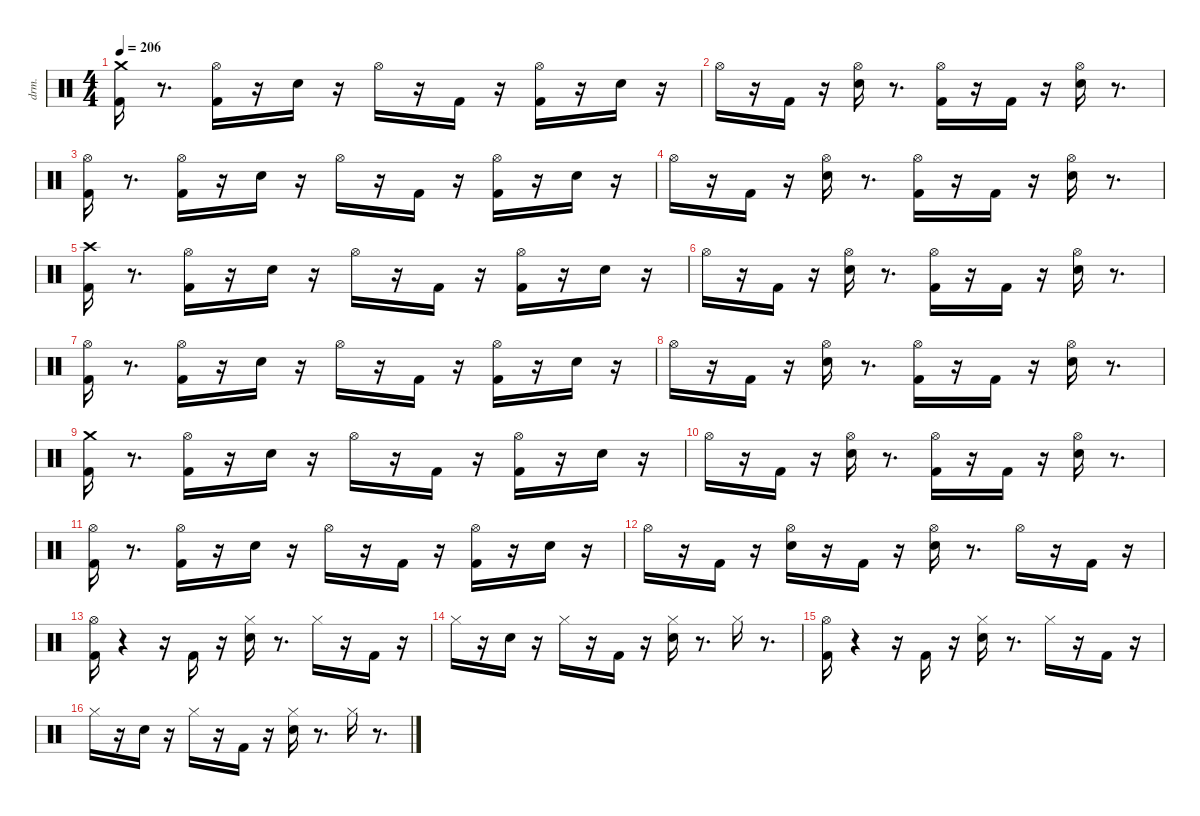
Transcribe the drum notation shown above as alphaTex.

\defaultSystemsLayout 4
\hideDynamics
\bracketExtendMode nobrackets
\otherSystemsTrackNameOrientation horizontal
\track ("EZdrummer 3" "drm.") {instrument percussion}
\staff {score}
\articulation defaults
\ts (4 4)
\tempo 206
\clef neutral
\ks aminor
("Kick (hit) 2" "Crash medium (hit)").16{dy ff beam Down} r.8{d beam Down} ("Kick (hit) 2" "Hi-Hat (open)"{acc #}).16{beam Down} r.16{beam Down} "Snare (hit) 2".16{beam Down} r.16{beam Down} "Hi-Hat (open)"{acc #}.16{dy f beam Down} r.16{beam Down} "Kick (hit) 2".16{dy mf beam Down} r.16{beam Down} ("Kick (hit) 2" "Hi-Hat (open)"{acc #}).16{dy ff beam Down} r.16{beam Down} "Snare (hit) 2".16{beam Down} r.16{beam Down} |
"Hi-Hat (open)"{acc #}.16{dy fff beam Down} r.16{beam Down} "Kick (hit) 2".16{dy ff beam Down} r.16{beam Down} ("Snare (hit) 2" "Hi-Hat (open)"{acc #}).16{beam Down} r.8{d beam Down} ("Kick (hit) 2" "Hi-Hat (open)"{acc #}).16{dy mf beam Down} r.16{beam Down} "Kick (hit) 2".16{dy fff beam Down} r.16{beam Down} ("Snare (hit) 2" "Hi-Hat (open)"{acc #}).16{dy ff beam Down} r.8{d beam Down} |
("Kick (hit) 2" "Hi-Hat (open)"{acc #}).16{beam Down} r.8{d beam Down} ("Kick (hit) 2" "Hi-Hat (open)"{acc #}).16{beam Down} r.16{beam Down} "Snare (hit) 2".16{beam Down} r.16{beam Down} "Hi-Hat (open)"{acc #}.16{dy f beam Down} r.16{beam Down} "Kick (hit) 2".16{dy mf beam Down} r.16{beam Down} ("Kick (hit) 2" "Hi-Hat (open)"{acc #}).16{dy ff beam Down} r.16{beam Down} "Snare (hit) 2".16{beam Down} r.16{beam Down} |
"Hi-Hat (open)"{acc #}.16{dy fff beam Down} r.16{beam Down} "Kick (hit) 2".16{dy ff beam Down} r.16{beam Down} ("Snare (hit) 2" "Hi-Hat (open)"{acc #}).16{beam Down} r.8{d beam Down} ("Kick (hit) 2" "Hi-Hat (open)"{acc #}).16{dy mf beam Down} r.16{beam Down} "Kick (hit) 2".16{dy fff beam Down} r.16{beam Down} ("Snare (hit) 2" "Hi-Hat (open)"{acc #}).16{dy ff beam Down} r.8{d beam Down} |
("Kick (hit) 2" "Crash high (hit)"{acc #}).16{beam Down} r.8{d beam Down} ("Kick (hit) 2" "Hi-Hat (open)"{acc #}).16{beam Down} r.16{beam Down} "Snare (hit) 2".16{beam Down} r.16{beam Down} "Hi-Hat (open)"{acc #}.16{dy f beam Down} r.16{beam Down} "Kick (hit) 2".16{dy mf beam Down} r.16{beam Down} ("Kick (hit) 2" "Hi-Hat (open)"{acc #}).16{dy ff beam Down} r.16{beam Down} "Snare (hit) 2".16{beam Down} r.16{beam Down} |
"Hi-Hat (open)"{acc #}.16{dy fff beam Down} r.16{beam Down} "Kick (hit) 2".16{dy ff beam Down} r.16{beam Down} ("Snare (hit) 2" "Hi-Hat (open)"{acc #}).16{beam Down} r.8{d beam Down} ("Kick (hit) 2" "Hi-Hat (open)"{acc #}).16{dy mf beam Down} r.16{beam Down} "Kick (hit) 2".16{dy fff beam Down} r.16{beam Down} ("Snare (hit) 2" "Hi-Hat (open)"{acc #}).16{dy ff beam Down} r.8{d beam Down} |
("Kick (hit) 2" "Hi-Hat (open)"{acc #}).16{beam Down} r.8{d beam Down} ("Kick (hit) 2" "Hi-Hat (open)"{acc #}).16{beam Down} r.16{beam Down} "Snare (hit) 2".16{beam Down} r.16{beam Down} "Hi-Hat (open)"{acc #}.16{dy f beam Down} r.16{beam Down} "Kick (hit) 2".16{dy mf beam Down} r.16{beam Down} ("Kick (hit) 2" "Hi-Hat (open)"{acc #}).16{dy ff beam Down} r.16{beam Down} "Snare (hit) 2".16{beam Down} r.16{beam Down} |
"Hi-Hat (open)"{acc #}.16{dy fff beam Down} r.16{beam Down} "Kick (hit) 2".16{dy ff beam Down} r.16{beam Down} ("Snare (hit) 2" "Hi-Hat (open)"{acc #}).16{beam Down} r.8{d beam Down} ("Kick (hit) 2" "Hi-Hat (open)"{acc #}).16{dy mf beam Down} r.16{beam Down} "Kick (hit) 2".16{dy fff beam Down} r.16{beam Down} ("Snare (hit) 2" "Hi-Hat (open)"{acc #}).16{dy ff beam Down} r.8{d beam Down} |
("Kick (hit) 2" "Crash medium (hit)").16{beam Down} r.8{d beam Down} ("Kick (hit) 2" "Hi-Hat (open)"{acc #}).16{beam Down} r.16{beam Down} "Snare (hit) 2".16{beam Down} r.16{beam Down} "Hi-Hat (open)"{acc #}.16{dy f beam Down} r.16{beam Down} "Kick (hit) 2".16{dy mf beam Down} r.16{beam Down} ("Kick (hit) 2" "Hi-Hat (open)"{acc #}).16{dy ff beam Down} r.16{beam Down} "Snare (hit) 2".16{beam Down} r.16{beam Down} |
"Hi-Hat (open)"{acc #}.16{dy fff beam Down} r.16{beam Down} "Kick (hit) 2".16{dy ff beam Down} r.16{beam Down} ("Snare (hit) 2" "Hi-Hat (open)"{acc #}).16{beam Down} r.8{d beam Down} ("Kick (hit) 2" "Hi-Hat (open)"{acc #}).16{dy mf beam Down} r.16{beam Down} "Kick (hit) 2".16{dy fff beam Down} r.16{beam Down} ("Snare (hit) 2" "Hi-Hat (open)"{acc #}).16{dy ff beam Down} r.8{d beam Down} |
("Kick (hit) 2" "Hi-Hat (open)"{acc #}).16{beam Down} r.8{d beam Down} ("Kick (hit) 2" "Hi-Hat (open)"{acc #}).16{beam Down} r.16{beam Down} "Snare (hit) 2".16{beam Down} r.16{beam Down} "Hi-Hat (open)"{acc #}.16{dy f beam Down} r.16{beam Down} "Kick (hit) 2".16{dy mf beam Down} r.16{beam Down} ("Kick (hit) 2" "Hi-Hat (open)"{acc #}).16{dy ff beam Down} r.16{beam Down} "Snare (hit) 2".16{beam Down} r.16{beam Down} |
"Hi-Hat (open)"{acc #}.16{dy fff beam Down} r.16{beam Down} "Kick (hit) 2".16{dy ff beam Down} r.16{beam Down} ("Snare (hit) 2" "Hi-Hat (open)"{acc #}).16{beam Down} r.16{beam Down} "Kick (hit) 2".16{beam Down} r.16{beam Down} ("Snare (hit) 2" "Hi-Hat (open)"{acc #}).16{beam Down} r.8{d beam Down} "Hi-Hat (open)"{acc #}.16{dy f beam Down} r.16{beam Down} "Kick (hit) 2".16{dy mf beam Down} r.16{beam Down} |
("Kick (hit) 2" "Hi-Hat (open)"{acc #}).16{dy fff beam Down} r.4{beam Down} r.16{beam Down} "Kick (hit) 2".16{dy ff beam Up} r.16{beam Up} ("Snare (hit) 2" "Hi-Hat (closed)"{acc #}).16{beam Down} r.8{d beam Down} "Hi-Hat (closed)"{acc #}.16{dy p beam Down} r.16{beam Down} "Kick (hit) 2".16{dy ff beam Down} r.16{beam Down} |
"Hi-Hat (closed)"{acc #}.16{dy fff beam Down} r.16{beam Down} "Snare (hit) 2".16{dy ff beam Down} r.16{beam Down} "Hi-Hat (closed)"{acc #}.16{dy mp beam Down} r.16{beam Down} "Kick (hit) 2".16{dy ff beam Down} r.16{beam Down} ("Snare (hit) 2" "Hi-Hat (closed)"{acc #}).16{beam Down} r.8{d beam Down} "Hi-Hat (closed)"{acc #}.16{dy pp beam Down} r.8{d beam Down} |
("Kick (hit) 2" "Hi-Hat (open)"{acc #}).16{dy ff beam Down} r.4{beam Down} r.16{beam Down} "Kick (hit) 2".16{beam Up} r.16{beam Up} ("Snare (hit) 2" "Hi-Hat (closed)"{acc #}).16{beam Down} r.8{d beam Down} "Hi-Hat (closed)"{acc #}.16{dy p beam Down} r.16{beam Down} "Kick (hit) 2".16{dy ff beam Down} r.16{beam Down} |
"Hi-Hat (closed)"{acc #}.16{dy fff beam Down} r.16{beam Down} "Snare (hit) 2".16{dy ff beam Down} r.16{beam Down} "Hi-Hat (closed)"{acc #}.16{dy mp beam Down} r.16{beam Down} "Kick (hit) 2".16{dy ff beam Down} r.16{beam Down} ("Snare (hit) 2" "Hi-Hat (closed)"{acc #}).16{beam Down} r.8{d beam Down} "Hi-Hat (closed)"{acc #}.16{dy pp beam Down} r.8{d beam Down}
